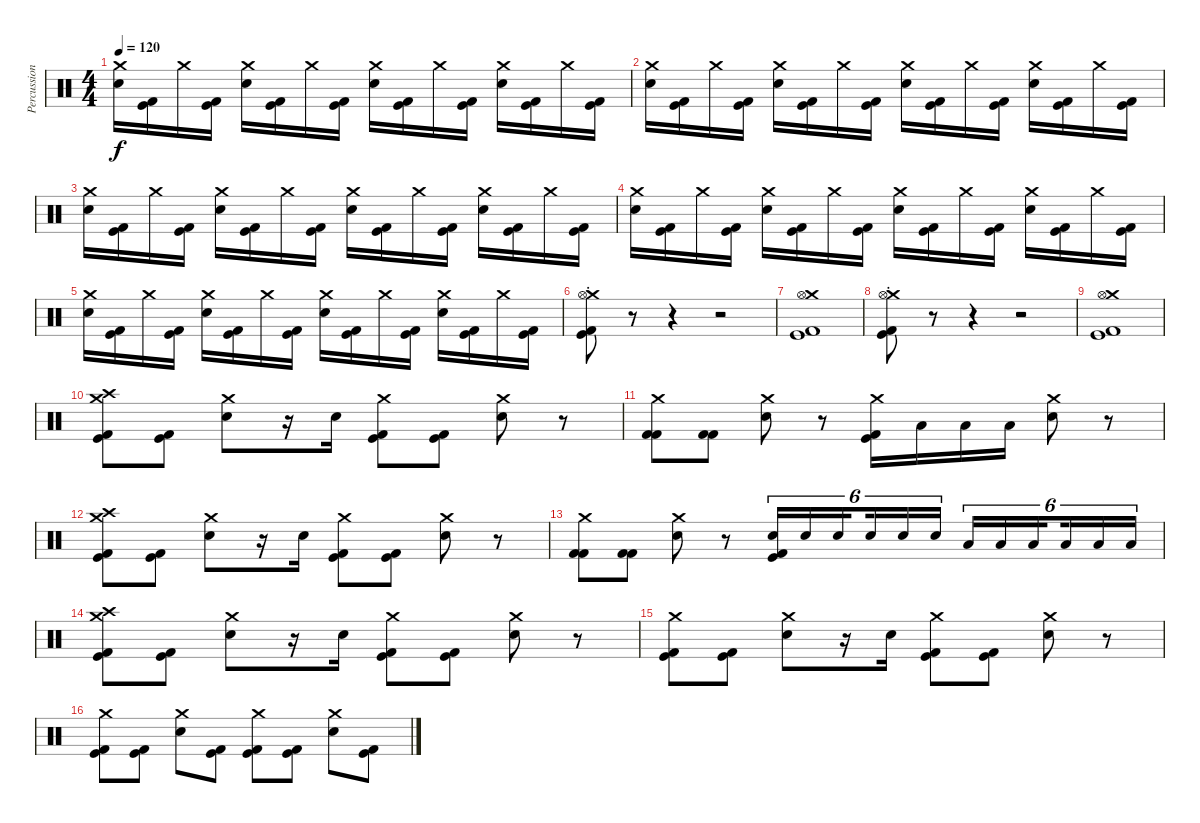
\track ("Percussion" "Percussion") {instrument percussion}
\staff {score}
\articulation defaults
\ts (4 4)
\tempo 120
\clef neutral
\ks c
("Crash medium (hit)" "Electric Snare (hit)").16{dy f} ("Kick (hit)" "Kick (hit) 2").16 "Crash medium (hit)".16 ("Kick (hit)" "Kick (hit) 2").16 ("Crash medium (hit)" "Electric Snare (hit)").16 ("Kick (hit)" "Kick (hit) 2").16 "Crash medium (hit)".16 ("Kick (hit)" "Kick (hit) 2").16 ("Crash medium (hit)" "Electric Snare (hit)").16 ("Kick (hit)" "Kick (hit) 2").16 "Crash medium (hit)".16 ("Kick (hit)" "Kick (hit) 2").16 ("Crash medium (hit)" "Electric Snare (hit)").16 ("Kick (hit)" "Kick (hit) 2").16 "Crash medium (hit)".16 ("Kick (hit)" "Kick (hit) 2").16 |
("Crash medium (hit)" "Electric Snare (hit)").16 ("Kick (hit)" "Kick (hit) 2").16 "Crash medium (hit)".16 ("Kick (hit)" "Kick (hit) 2").16 ("Crash medium (hit)" "Electric Snare (hit)").16 ("Kick (hit)" "Kick (hit) 2").16 "Crash medium (hit)".16 ("Kick (hit)" "Kick (hit) 2").16 ("Crash medium (hit)" "Electric Snare (hit)").16 ("Kick (hit)" "Kick (hit) 2").16 "Crash medium (hit)".16 ("Kick (hit)" "Kick (hit) 2").16 ("Crash medium (hit)" "Electric Snare (hit)").16 ("Kick (hit)" "Kick (hit) 2").16 "Crash medium (hit)".16 ("Kick (hit)" "Kick (hit) 2").16 |
("Crash medium (hit)" "Electric Snare (hit)").16 ("Kick (hit)" "Kick (hit) 2").16 "Crash medium (hit)".16 ("Kick (hit)" "Kick (hit) 2").16 ("Crash medium (hit)" "Electric Snare (hit)").16 ("Kick (hit)" "Kick (hit) 2").16 "Crash medium (hit)".16 ("Kick (hit)" "Kick (hit) 2").16 ("Crash medium (hit)" "Electric Snare (hit)").16 ("Kick (hit)" "Kick (hit) 2").16 "Crash medium (hit)".16 ("Kick (hit)" "Kick (hit) 2").16 ("Crash medium (hit)" "Electric Snare (hit)").16 ("Kick (hit)" "Kick (hit) 2").16 "Crash medium (hit)".16 ("Kick (hit)" "Kick (hit) 2").16 |
("Crash medium (hit)" "Electric Snare (hit)").16 ("Kick (hit)" "Kick (hit) 2").16 "Crash medium (hit)".16 ("Kick (hit)" "Kick (hit) 2").16 ("Crash medium (hit)" "Electric Snare (hit)").16 ("Kick (hit)" "Kick (hit) 2").16 "Crash medium (hit)".16 ("Kick (hit)" "Kick (hit) 2").16 ("Crash medium (hit)" "Electric Snare (hit)").16 ("Kick (hit)" "Kick (hit) 2").16 "Crash medium (hit)".16 ("Kick (hit)" "Kick (hit) 2").16 ("Crash medium (hit)" "Electric Snare (hit)").16 ("Kick (hit)" "Kick (hit) 2").16 "Crash medium (hit)".16 ("Kick (hit)" "Kick (hit) 2").16 |
("Crash medium (hit)" "Electric Snare (hit)").16 ("Kick (hit)" "Kick (hit) 2").16 "Crash medium (hit)".16 ("Kick (hit)" "Kick (hit) 2").16 ("Crash medium (hit)" "Electric Snare (hit)").16 ("Kick (hit)" "Kick (hit) 2").16 "Crash medium (hit)".16 ("Kick (hit)" "Kick (hit) 2").16 ("Crash medium (hit)" "Electric Snare (hit)").16 ("Kick (hit)" "Kick (hit) 2").16 "Crash medium (hit)".16 ("Kick (hit)" "Kick (hit) 2").16 ("Crash medium (hit)" "Electric Snare (hit)").16 ("Kick (hit)" "Kick (hit) 2").16 "Crash medium (hit)".16 ("Kick (hit)" "Kick (hit) 2").16 |
("Crash medium (hit)"{st} "Hi-Hat (open)"{st} "Kick (hit)" "Kick (hit) 2").8 r.8 r.4 r.2 |
("Crash medium (hit)" "Hi-Hat (open)" "Kick (hit)" "Kick (hit) 2").1 |
("Crash medium (hit)"{st} "Hi-Hat (open)"{st} "Kick (hit)" "Kick (hit) 2").8 r.8 r.4 r.2 |
("Crash medium (hit)" "Hi-Hat (open)" "Kick (hit)" "Kick (hit) 2").1 |
("Crash medium (hit)" "Crash high (hit)" "Kick (hit)" "Kick (hit) 2").8 ("Kick (hit)" "Kick (hit) 2").8 ("Crash medium (hit)" "Electric Snare (hit)").8 r.16 "Electric Snare (hit)".16 ("Crash medium (hit)" "Kick (hit)" "Kick (hit) 2").8 ("Kick (hit)" "Kick (hit) 2").8 ("Crash medium (hit)" "Electric Snare (hit)").8 r.8 |
("Crash medium (hit)" "Kick (hit) 2" "Kick (hit) 2").8 ("Kick (hit) 2" "Kick (hit) 2").8 ("Crash medium (hit)" "Electric Snare (hit)").8 r.8 ("Crash medium (hit)" "Kick (hit)" "Kick (hit) 2").16 "Low Tom (hit)".16 "Low Tom (hit)".16 "Low Tom (hit)".16 ("Crash medium (hit)" "Electric Snare (hit)").8 r.8 |
("Crash medium (hit)" "Crash high (hit)" "Kick (hit)" "Kick (hit) 2").8 ("Kick (hit)" "Kick (hit) 2").8 ("Crash medium (hit)" "Electric Snare (hit)").8 r.16 "Electric Snare (hit)".16 ("Crash medium (hit)" "Kick (hit)" "Kick (hit) 2").8 ("Kick (hit)" "Kick (hit) 2").8 ("Crash medium (hit)" "Electric Snare (hit)").8 r.8 |
("Crash medium (hit)" "Kick (hit) 2" "Kick (hit) 2").8 ("Kick (hit) 2" "Kick (hit) 2").8 ("Crash medium (hit)" "Electric Snare (hit)").8 r.8 ("Electric Snare (hit)" "Kick (hit)" "Kick (hit) 2").16{tu (6 4)} "Electric Snare (hit)".16{tu (6 4)} "Electric Snare (hit)".16{tu (6 4) beam splitsecondary} "Electric Snare (hit)".16{tu (6 4)} "Electric Snare (hit)".16{tu (6 4)} "Electric Snare (hit)".16{tu (6 4)} "Low Tom (hit)".16{tu (6 4)} "Low Tom (hit)".16{tu (6 4)} "Low Tom (hit)".16{tu (6 4) beam splitsecondary} "Low Tom (hit)".16{tu (6 4)} "Low Tom (hit)".16{tu (6 4)} "Low Tom (hit)".16{tu (6 4)} |
("Crash medium (hit)" "Crash high (hit)" "Kick (hit)" "Kick (hit) 2").8 ("Kick (hit)" "Kick (hit) 2").8 ("Crash medium (hit)" "Electric Snare (hit)").8 r.16 "Electric Snare (hit)".16 ("Crash medium (hit)" "Kick (hit)" "Kick (hit) 2").8 ("Kick (hit)" "Kick (hit) 2").8 ("Crash medium (hit)" "Electric Snare (hit)").8 r.8 |
("Crash medium (hit)" "Kick (hit)" "Kick (hit) 2").8 ("Kick (hit)" "Kick (hit) 2").8 ("Crash medium (hit)" "Electric Snare (hit)").8 r.16 "Electric Snare (hit)".16 ("Crash medium (hit)" "Kick (hit)" "Kick (hit) 2").8 ("Kick (hit)" "Kick (hit) 2").8 ("Crash medium (hit)" "Electric Snare (hit)").8 r.8 |
("Crash medium (hit)" "Kick (hit)" "Kick (hit) 2").8 ("Kick (hit)" "Kick (hit) 2").8 ("Crash medium (hit)" "Electric Snare (hit)").8 ("Kick (hit)" "Kick (hit) 2").8 ("Crash medium (hit)" "Kick (hit)" "Kick (hit) 2").8 ("Kick (hit)" "Kick (hit) 2").8 ("Crash medium (hit)" "Electric Snare (hit)").8 ("Kick (hit)" "Kick (hit) 2").8
